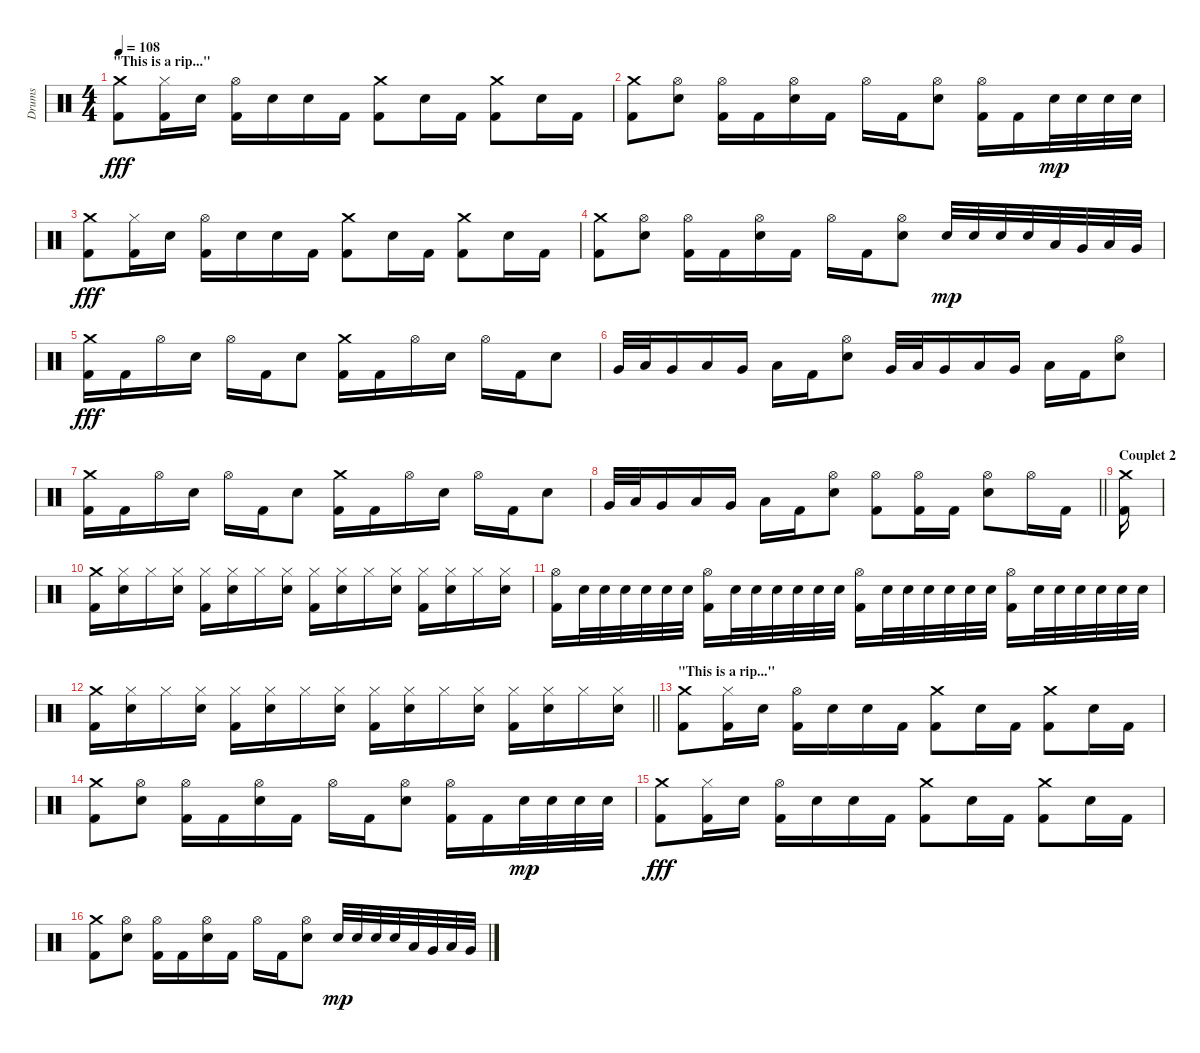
\track ("Drums" "Drums") {instrument percussion}
\staff {score}
\articulation defaults
\ts (4 4)
\section ("" "\"This is a rip...\"")
\tempo 108
\clef neutral
\ks c
("Crash medium (hit)" "Kick (hit) 2").8{dy fff} ("Hi-Hat (closed)" "Kick (hit) 2").16 "Electric Snare (hit)".16 ("Hi-Hat (open)" "Kick (hit) 2").16 "Electric Snare (hit)".16 "Electric Snare (hit)".16 "Kick (hit) 2".16 ("Crash medium (hit)" "Kick (hit) 2").8 "Electric Snare (hit)".16 "Kick (hit) 2".16 ("Crash medium (hit)" "Kick (hit) 2").8 "Electric Snare (hit)".16 "Kick (hit) 2".16 |
("Crash medium (hit)" "Kick (hit) 2").8 ("Hi-Hat (open)" "Electric Snare (hit)").8 ("Hi-Hat (open)" "Kick (hit) 2").16 "Kick (hit) 2".16 ("Hi-Hat (open)" "Electric Snare (hit)").16 "Kick (hit) 2".16 "Hi-Hat (open)".16 "Kick (hit) 2".16 ("Hi-Hat (open)" "Electric Snare (hit)").8 ("Hi-Hat (open)" "Kick (hit) 2").16 "Kick (hit) 2".16 "Electric Snare (hit)".32{dy mp} "Electric Snare (hit)".32 "Electric Snare (hit)".32 "Electric Snare (hit)".32 |
("Crash medium (hit)" "Kick (hit) 2").8{dy fff} ("Hi-Hat (closed)" "Kick (hit) 2").16 "Electric Snare (hit)".16 ("Hi-Hat (open)" "Kick (hit) 2").16 "Electric Snare (hit)".16 "Electric Snare (hit)".16 "Kick (hit) 2".16 ("Crash medium (hit)" "Kick (hit) 2").8 "Electric Snare (hit)".16 "Kick (hit) 2".16 ("Crash medium (hit)" "Kick (hit) 2").8 "Electric Snare (hit)".16 "Kick (hit) 2".16 |
("Crash medium (hit)" "Kick (hit) 2").8 ("Hi-Hat (open)" "Electric Snare (hit)").8 ("Hi-Hat (open)" "Kick (hit) 2").16 "Kick (hit) 2".16 ("Hi-Hat (open)" "Electric Snare (hit)").16 "Kick (hit) 2".16 "Hi-Hat (open)".16 "Kick (hit) 2".16 ("Hi-Hat (open)" "Electric Snare (hit)").8 "Electric Snare (hit)".32{dy mp} "Electric Snare (hit)".32 "Electric Snare (hit)".32 "Electric Snare (hit)".32 "Low Tom (hit)".32 "Very Low Tom (hit)".32 "Low Floor Tom (hit)".32 "Very Low Tom (hit)".32 |
("Crash medium (hit)" "Kick (hit) 2").16{dy fff} "Kick (hit) 2".16 "Hi-Hat (open)".16 "Electric Snare (hit)".16 "Hi-Hat (open)".16 "Kick (hit) 2".16 "Electric Snare (hit)".8 ("Crash medium (hit)" "Kick (hit) 2").16 "Kick (hit) 2".16 "Hi-Hat (open)".16 "Electric Snare (hit)".16 "Hi-Hat (open)".16 "Kick (hit) 2".16 "Electric Snare (hit)".8 |
"Very Low Tom (hit)".32 "Low Tom (hit)".32 "Very Low Tom (hit)".16 "Low Floor Tom (hit)".16 "Very Low Tom (hit)".16 "Low Tom (hit)".16 "Kick (hit) 2".16 ("Hi-Hat (open)" "Electric Snare (hit)").8 "Very Low Tom (hit)".32 "Low Tom (hit)".32 "Very Low Tom (hit)".16 "Low Floor Tom (hit)".16 "Very Low Tom (hit)".16 "Low Tom (hit)".16 "Kick (hit) 2".16 ("Hi-Hat (open)" "Electric Snare (hit)").8 |
("Crash medium (hit)" "Kick (hit) 2").16 "Kick (hit) 2".16 "Hi-Hat (open)".16 "Electric Snare (hit)".16 "Hi-Hat (open)".16 "Kick (hit) 2".16 "Electric Snare (hit)".8 ("Crash medium (hit)" "Kick (hit) 2").16 "Kick (hit) 2".16 "Hi-Hat (open)".16 "Electric Snare (hit)".16 "Hi-Hat (open)".16 "Kick (hit) 2".16 "Electric Snare (hit)".8 |
\barLineRight lightlight "Very Low Tom (hit)".32 "Low Tom (hit)".32 "Very Low Tom (hit)".16 "Low Floor Tom (hit)".16 "Very Low Tom (hit)".16 "Low Tom (hit)".16 "Kick (hit) 2".16
("Hi-Hat (open)" "Electric Snare (hit)").8 ("Hi-Hat (open)" "Kick (hit) 2").8 ("Hi-Hat (open)" "Kick (hit) 2").16 "Kick (hit) 2".16 ("Hi-Hat (open)" "Electric Snare (hit)").8 "Hi-Hat (open)".16 "Kick (hit) 2".16 |
\section ("" "Couplet 2")
("Crash medium (hit)" "Kick (hit) 2").16 |
("Crash medium (hit)" "Kick (hit) 2").16 ("Hi-Hat (closed)" "Electric Snare (hit)").16 "Hi-Hat (closed)".16 ("Hi-Hat (closed)" "Electric Snare (hit)").16 ("Hi-Hat (closed)" "Kick (hit) 2").16 ("Hi-Hat (closed)" "Electric Snare (hit)").16 "Hi-Hat (closed)".16 ("Hi-Hat (closed)" "Electric Snare (hit)").16 ("Hi-Hat (closed)" "Kick (hit) 2").16 ("Hi-Hat (closed)" "Electric Snare (hit)").16 "Hi-Hat (closed)".16 ("Hi-Hat (closed)" "Electric Snare (hit)").16 ("Hi-Hat (closed)" "Kick (hit) 2").16 ("Hi-Hat (closed)" "Electric Snare (hit)").16 "Hi-Hat (closed)".16 ("Hi-Hat (closed)" "Electric Snare (hit)").16 |
("Hi-Hat (open)" "Kick (hit) 2").16 "Electric Snare (hit)".32 "Electric Snare (hit)".32 "Electric Snare (hit)".32 "Electric Snare (hit)".32 "Electric Snare (hit)".32 "Electric Snare (hit)".32 ("Hi-Hat (open)" "Kick (hit) 2").16 "Electric Snare (hit)".32 "Electric Snare (hit)".32 "Electric Snare (hit)".32 "Electric Snare (hit)".32 "Electric Snare (hit)".32 "Electric Snare (hit)".32 ("Hi-Hat (open)" "Kick (hit) 2").16 "Electric Snare (hit)".32 "Electric Snare (hit)".32 "Electric Snare (hit)".32 "Electric Snare (hit)".32 "Electric Snare (hit)".32 "Electric Snare (hit)".32 ("Hi-Hat (open)" "Kick (hit) 2").16 "Electric Snare (hit)".32 "Electric Snare (hit)".32 "Electric Snare (hit)".32 "Electric Snare (hit)".32 "Electric Snare (hit)".32 "Electric Snare (hit)".32 |
\barLineRight lightlight
("Crash medium (hit)" "Kick (hit) 2").16 ("Hi-Hat (closed)" "Electric Snare (hit)").16 "Hi-Hat (closed)".16 ("Hi-Hat (closed)" "Electric Snare (hit)").16 ("Hi-Hat (closed)" "Kick (hit) 2").16 ("Hi-Hat (closed)" "Electric Snare (hit)").16 "Hi-Hat (closed)".16 ("Hi-Hat (closed)" "Electric Snare (hit)").16 ("Hi-Hat (closed)" "Kick (hit) 2").16 ("Hi-Hat (closed)" "Electric Snare (hit)").16 "Hi-Hat (closed)".16 ("Hi-Hat (closed)" "Electric Snare (hit)").16 ("Hi-Hat (closed)" "Kick (hit) 2").16 ("Hi-Hat (closed)" "Electric Snare (hit)").16 "Hi-Hat (closed)".16 ("Hi-Hat (closed)" "Electric Snare (hit)").16 |
\section ("" "\"This is a rip...\"")
("Crash medium (hit)" "Kick (hit) 2").8 ("Hi-Hat (closed)" "Kick (hit) 2").16 "Electric Snare (hit)".16 ("Hi-Hat (open)" "Kick (hit) 2").16 "Electric Snare (hit)".16 "Electric Snare (hit)".16 "Kick (hit) 2".16 ("Crash medium (hit)" "Kick (hit) 2").8 "Electric Snare (hit)".16 "Kick (hit) 2".16 ("Crash medium (hit)" "Kick (hit) 2").8 "Electric Snare (hit)".16 "Kick (hit) 2".16 |
("Crash medium (hit)" "Kick (hit) 2").8 ("Hi-Hat (open)" "Electric Snare (hit)").8 ("Hi-Hat (open)" "Kick (hit) 2").16 "Kick (hit) 2".16 ("Hi-Hat (open)" "Electric Snare (hit)").16 "Kick (hit) 2".16 "Hi-Hat (open)".16 "Kick (hit) 2".16 ("Hi-Hat (open)" "Electric Snare (hit)").8 ("Hi-Hat (open)" "Kick (hit) 2").16 "Kick (hit) 2".16 "Electric Snare (hit)".32{dy mp} "Electric Snare (hit)".32 "Electric Snare (hit)".32 "Electric Snare (hit)".32 |
("Crash medium (hit)" "Kick (hit) 2").8{dy fff} ("Hi-Hat (closed)" "Kick (hit) 2").16 "Electric Snare (hit)".16 ("Hi-Hat (open)" "Kick (hit) 2").16 "Electric Snare (hit)".16 "Electric Snare (hit)".16 "Kick (hit) 2".16 ("Crash medium (hit)" "Kick (hit) 2").8 "Electric Snare (hit)".16 "Kick (hit) 2".16 ("Crash medium (hit)" "Kick (hit) 2").8 "Electric Snare (hit)".16 "Kick (hit) 2".16 |
("Crash medium (hit)" "Kick (hit) 2").8 ("Hi-Hat (open)" "Electric Snare (hit)").8 ("Hi-Hat (open)" "Kick (hit) 2").16 "Kick (hit) 2".16 ("Hi-Hat (open)" "Electric Snare (hit)").16 "Kick (hit) 2".16 "Hi-Hat (open)".16 "Kick (hit) 2".16 ("Hi-Hat (open)" "Electric Snare (hit)").8 "Electric Snare (hit)".32{dy mp} "Electric Snare (hit)".32 "Electric Snare (hit)".32 "Electric Snare (hit)".32 "Low Tom (hit)".32 "Very Low Tom (hit)".32 "Low Floor Tom (hit)".32 "Very Low Tom (hit)".32
